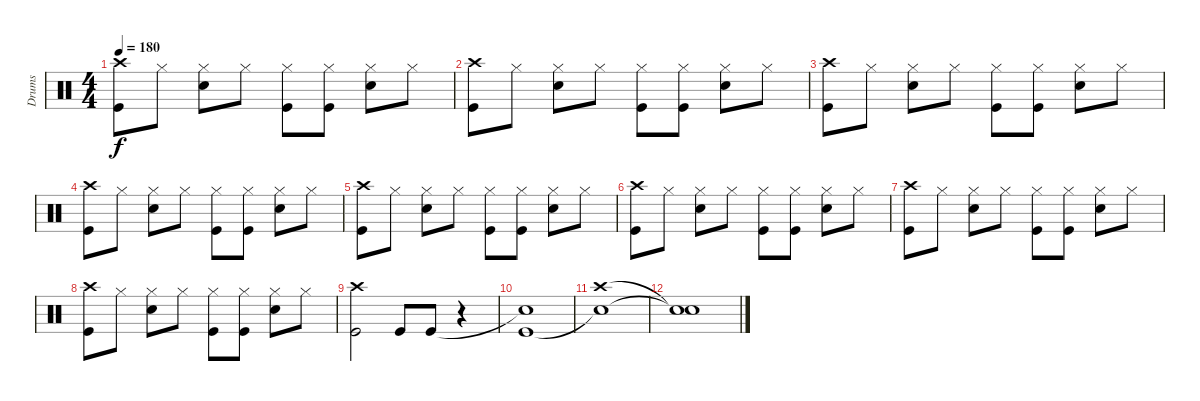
\track ("Drums" "Drums") {instrument percussion}
\staff {score}
\articulation defaults
\ts (4 4)
\tempo 180
\clef neutral
\ks c
("Crash high (hit)" "Kick (hit)").8{dy f} "Hi-Hat (closed)".8 ("Hi-Hat (closed)" "Snare (hit) 2").8 "Hi-Hat (closed)".8 ("Hi-Hat (closed)" "Kick (hit)").8 ("Hi-Hat (closed)" "Kick (hit)").8 ("Hi-Hat (closed)" "Snare (hit) 2").8 "Hi-Hat (closed)".8 |
("Crash high (hit)" "Kick (hit)").8 "Hi-Hat (closed)".8 ("Hi-Hat (closed)" "Snare (hit) 2").8 "Hi-Hat (closed)".8 ("Hi-Hat (closed)" "Kick (hit)").8 ("Hi-Hat (closed)" "Kick (hit)").8 ("Hi-Hat (closed)" "Snare (hit) 2").8 "Hi-Hat (closed)".8 |
("Crash high (hit)" "Kick (hit)").8 "Hi-Hat (closed)".8 ("Hi-Hat (closed)" "Snare (hit) 2").8 "Hi-Hat (closed)".8 ("Hi-Hat (closed)" "Kick (hit)").8 ("Hi-Hat (closed)" "Kick (hit)").8 ("Hi-Hat (closed)" "Snare (hit) 2").8 "Hi-Hat (closed)".8 |
("Crash high (hit)" "Kick (hit)").8 "Hi-Hat (closed)".8 ("Hi-Hat (closed)" "Snare (hit) 2").8 "Hi-Hat (closed)".8 ("Hi-Hat (closed)" "Kick (hit)").8 ("Hi-Hat (closed)" "Kick (hit)").8 ("Hi-Hat (closed)" "Snare (hit) 2").8 "Hi-Hat (closed)".8 |
("Crash high (hit)" "Kick (hit)").8 "Hi-Hat (closed)".8 ("Hi-Hat (closed)" "Snare (hit) 2").8 "Hi-Hat (closed)".8 ("Hi-Hat (closed)" "Kick (hit)").8 ("Hi-Hat (closed)" "Kick (hit)").8 ("Hi-Hat (closed)" "Snare (hit) 2").8 "Hi-Hat (closed)".8 |
("Crash high (hit)" "Kick (hit)").8 "Hi-Hat (closed)".8 ("Hi-Hat (closed)" "Snare (hit) 2").8 "Hi-Hat (closed)".8 ("Hi-Hat (closed)" "Kick (hit)").8 ("Hi-Hat (closed)" "Kick (hit)").8 ("Hi-Hat (closed)" "Snare (hit) 2").8 "Hi-Hat (closed)".8 |
("Crash high (hit)" "Kick (hit)").8 "Hi-Hat (closed)".8 ("Hi-Hat (closed)" "Snare (hit) 2").8 "Hi-Hat (closed)".8 ("Hi-Hat (closed)" "Kick (hit)").8 ("Hi-Hat (closed)" "Kick (hit)").8 ("Hi-Hat (closed)" "Snare (hit) 2").8 "Hi-Hat (closed)".8 |
("Crash high (hit)" "Kick (hit)").8 "Hi-Hat (closed)".8 ("Hi-Hat (closed)" "Snare (hit) 2").8 "Hi-Hat (closed)".8 ("Hi-Hat (closed)" "Kick (hit)").8 ("Hi-Hat (closed)" "Kick (hit)").8 ("Hi-Hat (closed)" "Snare (hit) 2").8 "Hi-Hat (closed)".8 |
("Crash high (hit)" "Kick (hit)").2 "Kick (hit)".8 "Kick (hit)".8 r.4 |
("Snare (hit)"{t} "Kick (hit)").1 |
("Crash high (hit)" "Snare (hit)"{t}).1 |
("Snare (hit)"{t} "Snare (hit)"{t}).1
